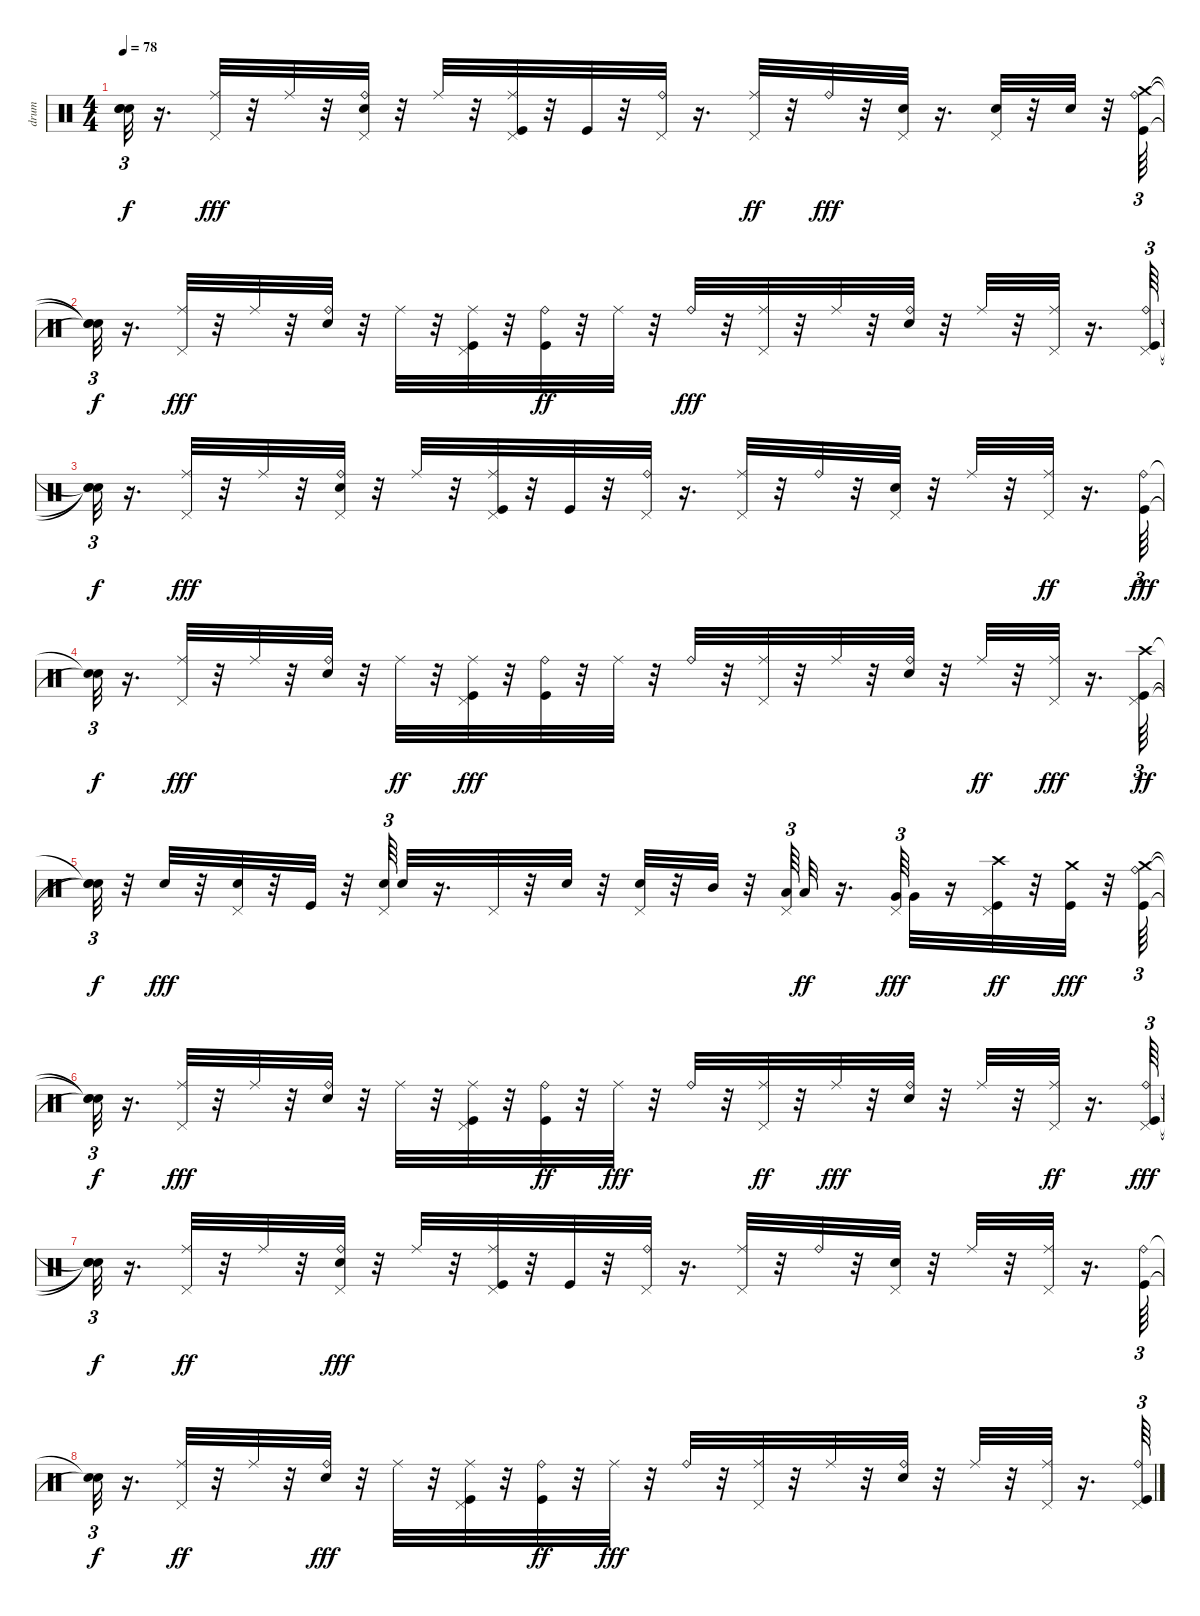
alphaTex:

\track ("drum" "drum") {instrument percussion}
\staff {score}
\articulation defaults
\ts (4 4)
\tempo 78
\clef neutral
\ks c
("Snare (hit)"{t} "Snare (hit)"{t} "Snare (hit)"{t}).32{tu (3 2) dy f} r.16{d} ("Ride (middle)" "Pedal Hi-Hat (hit)").32{dy fff} r.32 "Ride (middle)".32 r.32 ("Ride (bell)" "Pedal Hi-Hat (hit)" "Electric Snare (hit)").32 r.32 "Ride (middle)".32 r.32 ("Ride (middle)" "Pedal Hi-Hat (hit)" "Kick (hit)").32 r.32 "Kick (hit)".32 r.32 ("Ride (bell)" "Pedal Hi-Hat (hit)").32 r.16{d} ("Ride (middle)" "Pedal Hi-Hat (hit)").32{dy ff} r.32 "Ride (bell)".32{dy fff} r.32 ("Pedal Hi-Hat (hit)" "Electric Snare (hit)").32 r.16{d} ("Pedal Hi-Hat (hit)" "Electric Snare (hit)").32 r.32 "Electric Snare (hit)".32 r.32 ("Ride (bell)" "Kick (hit)" "Crash medium (hit)").64{tu (3 2)} |
("Snare (hit)"{t} "Snare (hit)"{t} "Snare (hit)"{t}).32{tu (3 2) dy f} r.16{d} ("Ride (middle)" "Pedal Hi-Hat (hit)").32{dy fff} r.32 "Ride (middle)".32 r.32 ("Ride (bell)" "Electric Snare (hit)").32 r.32 "Ride (middle)".32 r.32 ("Ride (middle)" "Pedal Hi-Hat (hit)" "Kick (hit)").32 r.32 ("Ride (bell)" "Kick (hit)").32{dy ff} r.32 "Ride (middle)".32 r.32 "Ride (bell)".32{dy fff} r.32 ("Ride (middle)" "Pedal Hi-Hat (hit)").32 r.32 "Ride (middle)".32 r.32 ("Ride (bell)" "Electric Snare (hit)").32 r.32 "Ride (middle)".32 r.32 ("Ride (middle)" "Pedal Hi-Hat (hit)").32 r.16{d} ("Ride (bell)" "Pedal Hi-Hat (hit)" "Kick (hit)").64{tu (3 2)} |
("Snare (hit)"{t} "Snare (hit)"{t} "Snare (hit)"{t}).32{tu (3 2) dy f} r.16{d} ("Ride (middle)" "Pedal Hi-Hat (hit)").32{dy fff} r.32 "Ride (middle)".32 r.32 ("Ride (bell)" "Pedal Hi-Hat (hit)" "Electric Snare (hit)").32 r.32 "Ride (middle)".32 r.32 ("Ride (middle)" "Pedal Hi-Hat (hit)" "Kick (hit)").32 r.32 "Kick (hit)".32 r.32 ("Ride (bell)" "Pedal Hi-Hat (hit)").32 r.16{d} ("Ride (middle)" "Pedal Hi-Hat (hit)").32 r.32 "Ride (bell)".32 r.32 ("Pedal Hi-Hat (hit)" "Electric Snare (hit)").32 r.32 "Ride (middle)".32 r.32 ("Ride (middle)" "Pedal Hi-Hat (hit)").32{dy ff} r.16{d} ("Ride (bell)" "Kick (hit)").64{tu (3 2) dy fff} |
("Snare (hit)"{t} "Snare (hit)"{t}).32{tu (3 2) dy f} r.16{d} ("Ride (middle)" "Pedal Hi-Hat (hit)").32{dy fff} r.32 "Ride (middle)".32 r.32 ("Ride (bell)" "Electric Snare (hit)").32 r.32 "Ride (middle)".32{dy ff} r.32 ("Ride (middle)" "Pedal Hi-Hat (hit)" "Kick (hit)").32{dy fff} r.32 ("Ride (bell)" "Kick (hit)").32 r.32 "Ride (middle)".32 r.32 "Ride (bell)".32 r.32 ("Ride (middle)" "Pedal Hi-Hat (hit)").32 r.32 "Ride (middle)".32 r.32 ("Ride (bell)" "Electric Snare (hit)").32 r.32 "Ride (middle)".32{dy ff} r.32 ("Ride (middle)" "Pedal Hi-Hat (hit)").32{dy fff} r.16{d} ("Pedal Hi-Hat (hit)" "Crash high (hit)" "Kick (hit)").64{tu (3 2) dy ff} |
("Snare (hit)"{t} "Snare (hit)"{t} "Snare (hit)"{t}).32{tu (3 2) dy f} r.32 "Electric Snare (hit)".32{dy fff} r.32 ("Pedal Hi-Hat (hit)" "Electric Snare (hit)").32 r.32 "Kick (hit)".32 r.32 ("Pedal Hi-Hat (hit)" "Electric Snare (hit)").64{tu (3 2)} "Electric Snare (hit)".32 r.16{d} "Pedal Hi-Hat (hit)".32 r.32 "Electric Snare (hit)".32 r.32 ("Pedal Hi-Hat (hit)" "Electric Snare (hit)").32 r.32 "Mid Tom (hit)".32 r.32 ("Low Tom (hit)" "Pedal Hi-Hat (hit)").64{tu (3 2)} "Low Tom (hit)".32{dy ff} r.16{d} ("Pedal Hi-Hat (hit)" "Very Low Tom (hit)").64{tu (3 2) dy fff} "Very Low Tom (hit)".32 r.16 ("Pedal Hi-Hat (hit)" "Crash high (hit)" "Kick (hit)").32{dy ff} r.32 ("Crash medium (hit)" "Kick (hit)").32{dy fff} r.32 ("Ride (bell)" "Kick (hit)" "Crash medium (hit)").64{tu (3 2)} |
("Snare (hit)"{t} "Snare (hit)"{t} "Snare (hit)"{t}).32{tu (3 2) dy f} r.16{d} ("Ride (middle)" "Pedal Hi-Hat (hit)").32{dy fff} r.32 "Ride (middle)".32 r.32 ("Ride (bell)" "Electric Snare (hit)").32 r.32 "Ride (middle)".32 r.32 ("Ride (middle)" "Pedal Hi-Hat (hit)" "Kick (hit)").32 r.32 ("Ride (bell)" "Kick (hit)").32{dy ff} r.32 "Ride (middle)".32{dy fff} r.32 "Ride (bell)".32 r.32 ("Ride (middle)" "Pedal Hi-Hat (hit)").32{dy ff} r.32 "Ride (middle)".32{dy fff} r.32 ("Ride (bell)" "Electric Snare (hit)").32 r.32 "Ride (middle)".32 r.32 ("Ride (middle)" "Pedal Hi-Hat (hit)").32{dy ff} r.16{d} ("Ride (bell)" "Pedal Hi-Hat (hit)" "Kick (hit)").64{tu (3 2) dy fff} |
("Snare (hit)"{t} "Snare (hit)"{t} "Snare (hit)"{t}).32{tu (3 2) dy f} r.16{d} ("Ride (middle)" "Pedal Hi-Hat (hit)").32{dy ff} r.32 "Ride (middle)".32 r.32 ("Ride (bell)" "Pedal Hi-Hat (hit)" "Electric Snare (hit)").32{dy fff} r.32 "Ride (middle)".32 r.32 ("Ride (middle)" "Pedal Hi-Hat (hit)" "Kick (hit)").32 r.32 "Kick (hit)".32 r.32 ("Ride (bell)" "Pedal Hi-Hat (hit)").32 r.16{d} ("Ride (middle)" "Pedal Hi-Hat (hit)").32 r.32 "Ride (bell)".32 r.32 ("Pedal Hi-Hat (hit)" "Electric Snare (hit)").32 r.32 "Ride (middle)".32 r.32 ("Ride (middle)" "Pedal Hi-Hat (hit)").32 r.16{d} ("Ride (bell)" "Kick (hit)").64{tu (3 2)} |
("Snare (hit)"{t} "Snare (hit)"{t}).32{tu (3 2) dy f} r.16{d} ("Ride (middle)" "Pedal Hi-Hat (hit)").32{dy ff} r.32 "Ride (middle)".32 r.32 ("Ride (bell)" "Electric Snare (hit)").32{dy fff} r.32 "Ride (middle)".32 r.32 ("Ride (middle)" "Pedal Hi-Hat (hit)" "Kick (hit)").32 r.32 ("Ride (bell)" "Kick (hit)").32{dy ff} r.32 "Ride (middle)".32{dy fff} r.32 "Ride (bell)".32 r.32 ("Ride (middle)" "Pedal Hi-Hat (hit)").32 r.32 "Ride (middle)".32 r.32 ("Ride (bell)" "Electric Snare (hit)").32 r.32 "Ride (middle)".32 r.32 ("Ride (middle)" "Pedal Hi-Hat (hit)").32 r.16{d} ("Ride (bell)" "Pedal Hi-Hat (hit)" "Kick (hit)").64{tu (3 2)}
